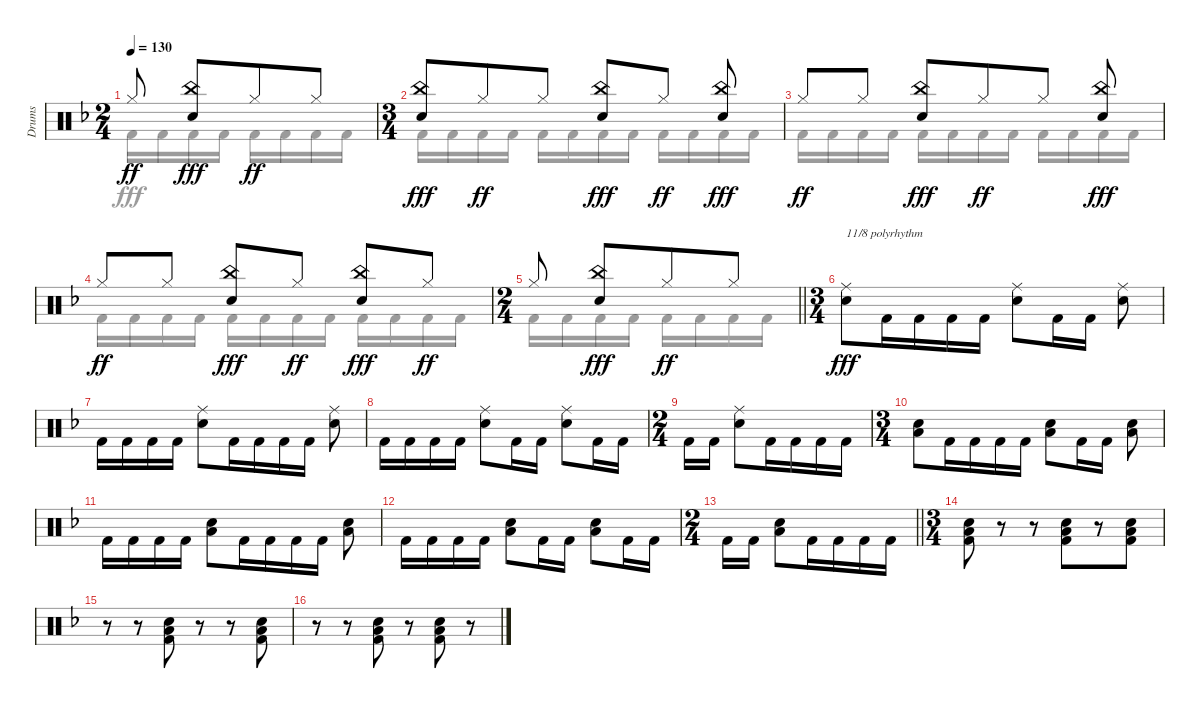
\track ("Drums" "Drums") {instrument percussion}
\staff {score}
\articulation defaults
\voice
\ts (2 4)
\tempo 130
\clef neutral
\ks dminor "Hi-Hat (closed)".8{dy ff beam split}
("China (hit)" "Snare (hit) 2").8{dy fff beam merge} "Hi-Hat (closed)".8{dy ff} "Hi-Hat (closed)".8 |
\ts (3 4)
("China (hit)" "Snare (hit) 2").8{dy fff} "Hi-Hat (closed)".8{dy ff beam merge} "Hi-Hat (closed)".8{beam split} ("China (hit)" "Snare (hit) 2").8{dy fff beam merge} "Hi-Hat (closed)".8{dy ff beam split} ("China (hit)" "Snare (hit) 2").8{dy fff} |
"Hi-Hat (closed)".8{dy ff} "Hi-Hat (closed)".8 ("China (hit)" "Snare (hit) 2").8{dy fff} "Hi-Hat (closed)".8{dy ff beam merge} "Hi-Hat (closed)".8{beam split} ("China (hit)" "Snare (hit) 2").8{dy fff} |
"Hi-Hat (closed)".8{dy ff} "Hi-Hat (closed)".8 ("China (hit)" "Snare (hit) 2").8{dy fff} "Hi-Hat (closed)".8{dy ff} ("China (hit)" "Snare (hit) 2").8{dy fff} "Hi-Hat (closed)".8{dy ff} |
\ts (2 4)
\barLineRight lightlight "Hi-Hat (closed)".8{beam split}
("China (hit)" "Snare (hit) 2").8{dy fff beam merge} "Hi-Hat (closed)".8{dy ff} "Hi-Hat (closed)".8 |
\ts (3 4)
("Ride (middle)" "Snare (hit) 2").8{txt "11/8 polyrhythm" dy fff} "Kick (hit) 2".16 "Kick (hit) 2".16{beam merge} "Kick (hit) 2".16 "Kick (hit) 2".16{beam split} ("Ride (middle)" "Snare (hit) 2").8{beam merge} "Kick (hit) 2".16 "Kick (hit) 2".16{beam split} ("Ride (middle)" "Snare (hit) 2").8{beam Down} |
"Kick (hit) 2".16{beam Down} "Kick (hit) 2".16{beam Down} "Kick (hit) 2".16{beam Down} "Kick (hit) 2".16{beam Down} ("Ride (middle)" "Snare (hit) 2").8 "Kick (hit) 2".16 "Kick (hit) 2".16{beam merge} "Kick (hit) 2".16 "Kick (hit) 2".16{beam split} ("Ride (middle)" "Snare (hit) 2").8 |
"Kick (hit) 2".16{beam Down} "Kick (hit) 2".16{beam Down} "Kick (hit) 2".16{beam Down} "Kick (hit) 2".16{beam Down} ("Ride (middle)" "Snare (hit) 2").8 "Kick (hit) 2".16 "Kick (hit) 2".16 ("Ride (middle)" "Snare (hit) 2").8 "Kick (hit) 2".16 "Kick (hit) 2".16 |
\ts (2 4)
"Kick (hit) 2".16{beam Down} "Kick (hit) 2".16{beam Down beam split} ("Ride (middle)" "Snare (hit) 2").8{beam merge} "Kick (hit) 2".16 "Kick (hit) 2".16 "Kick (hit) 2".16 "Kick (hit) 2".16 |
\ts (3 4)
("Snare (hit) 2" "Low Tom (hit)").8{beam Down} "Kick (hit) 2".16{beam Down} "Kick (hit) 2".16{beam Down beam merge} "Kick (hit) 2".16{beam Down} "Kick (hit) 2".16{beam Down beam split} ("Snare (hit) 2" "Low Tom (hit)").8{beam Down beam merge} "Kick (hit) 2".16{beam Down} "Kick (hit) 2".16{beam Down beam split} ("Snare (hit) 2" "Low Tom (hit)").8 |
"Kick (hit) 2".16{beam Down} "Kick (hit) 2".16{beam Down} "Kick (hit) 2".16{beam Down} "Kick (hit) 2".16{beam Down} ("Snare (hit) 2" "Low Tom (hit)").8{beam Down} "Kick (hit) 2".16{beam Down} "Kick (hit) 2".16{beam Down beam merge} "Kick (hit) 2".16{beam Down} "Kick (hit) 2".16{beam Down beam split} ("Snare (hit) 2" "Low Tom (hit)").8 |
"Kick (hit) 2".16{beam Down} "Kick (hit) 2".16{beam Down} "Kick (hit) 2".16{beam Down} "Kick (hit) 2".16{beam Down} ("Snare (hit) 2" "Low Tom (hit)").8{beam Down} "Kick (hit) 2".16{beam Down} "Kick (hit) 2".16{beam Down} ("Snare (hit) 2" "Low Tom (hit)").8{beam Down} "Kick (hit) 2".16{beam Down} "Kick (hit) 2".16{beam Down} |
\ts (2 4)
\barLineRight lightlight "Kick (hit) 2".16{beam Down} "Kick (hit) 2".16{beam Down beam split}
("Snare (hit) 2" "Low Tom (hit)").8{beam Down beam merge} "Kick (hit) 2".16{beam Down} "Kick (hit) 2".16{beam Down} "Kick (hit) 2".16{beam Down} "Kick (hit) 2".16{beam Down} |
\ts (3 4)
("Snare (hit) 2" "Low Tom (hit)" "Kick (hit) 2").8 r.8{beam merge} r.8 ("Snare (hit) 2" "Low Tom (hit)" "Kick (hit) 2").8{beam merge} r.8 ("Snare (hit) 2" "Low Tom (hit)" "Kick (hit) 2").8 |
r.8 r.8 ("Snare (hit) 2" "Low Tom (hit)" "Kick (hit) 2").8 r.8{beam merge} r.8 ("Snare (hit) 2" "Low Tom (hit)" "Kick (hit) 2").8 |
r.8{beam merge} r.8 ("Snare (hit) 2" "Low Tom (hit)" "Kick (hit) 2").8 r.8 ("Snare (hit) 2" "Low Tom (hit)" "Kick (hit) 2").8 r.8
\voice
\clef neutral
\ottava regular
\simile none
\ks dminor "Kick (hit) 2".16{dy fff} "Kick (hit) 2".16 "Kick (hit) 2".16 "Kick (hit) 2".16 "Kick (hit) 2".16 "Kick (hit) 2".16 "Kick (hit) 2".16 "Kick (hit) 2".16
|
"Kick (hit) 2".16 "Kick (hit) 2".16 "Kick (hit) 2".16 "Kick (hit) 2".16 "Kick (hit) 2".16 "Kick (hit) 2".16 "Kick (hit) 2".16 "Kick (hit) 2".16 "Kick (hit) 2".16 "Kick (hit) 2".16 "Kick (hit) 2".16 "Kick (hit) 2".16 |
"Kick (hit) 2".16 "Kick (hit) 2".16 "Kick (hit) 2".16 "Kick (hit) 2".16 "Kick (hit) 2".16 "Kick (hit) 2".16 "Kick (hit) 2".16 "Kick (hit) 2".16 "Kick (hit) 2".16 "Kick (hit) 2".16 "Kick (hit) 2".16 "Kick (hit) 2".16 |
"Kick (hit) 2".16 "Kick (hit) 2".16 "Kick (hit) 2".16 "Kick (hit) 2".16 "Kick (hit) 2".16 "Kick (hit) 2".16 "Kick (hit) 2".16 "Kick (hit) 2".16 "Kick (hit) 2".16 "Kick (hit) 2".16 "Kick (hit) 2".16 "Kick (hit) 2".16 |
\barLineRight lightlight "Kick (hit) 2".16 "Kick (hit) 2".16 "Kick (hit) 2".16 "Kick (hit) 2".16 "Kick (hit) 2".16 "Kick (hit) 2".16 "Kick (hit) 2".16 "Kick (hit) 2".16
|
|
|
|
|
|
|
|
\barLineRight lightlight
|
|
|
